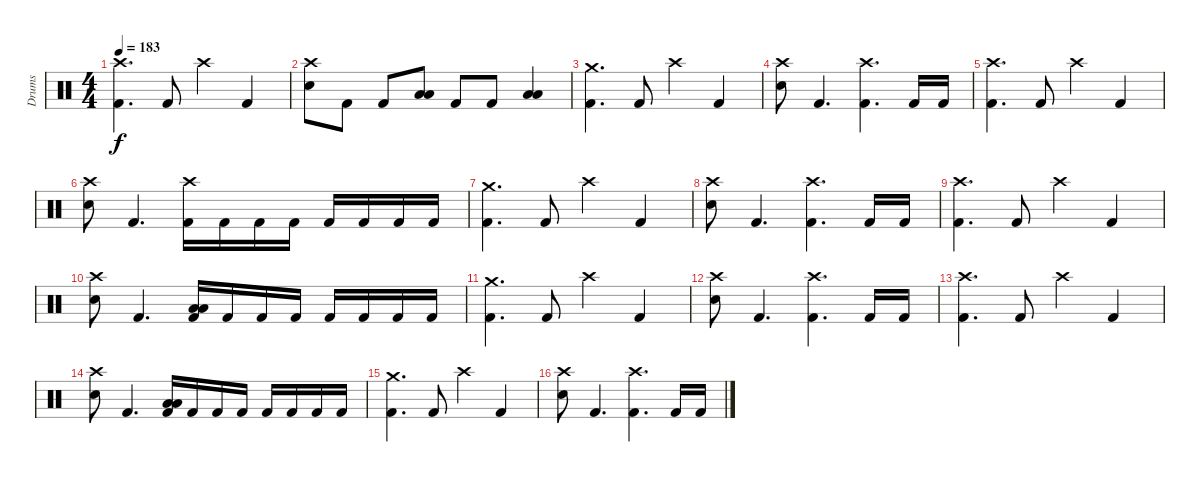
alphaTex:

\track ("Drums" "Drums") {instrument percussion}
\staff {score}
\articulation defaults
\ts (4 4)
\tempo 183
\clef neutral
\ks c
("Crash high (hit)" "Kick (hit) 2").4{d dy f} "Kick (hit) 2".8 "Crash high (hit)".4 "Kick (hit) 2".4 |
("Crash high (hit)" "Electric Snare (hit)").8 "Kick (hit) 2".8 "Kick (hit) 2".8 ("Low Tom (hit)" "Low Tom (hit)").8 "Kick (hit) 2".8 "Kick (hit) 2".8 ("Low Tom (hit)" "Low Floor Tom (hit)").4 |
("Crash medium (hit)" "Kick (hit) 2").4{d} "Kick (hit) 2".8 "Crash high (hit)".4 "Kick (hit) 2".4 |
("Crash high (hit)" "Electric Snare (hit)").8 "Kick (hit) 2".4{d} ("Crash high (hit)" "Kick (hit) 2").4{d} "Kick (hit) 2".16 "Kick (hit) 2".16 |
("Crash high (hit)" "Kick (hit) 2").4{d} "Kick (hit) 2".8 "Crash high (hit)".4 "Kick (hit) 2".4 |
("Crash high (hit)" "Electric Snare (hit)").8 "Kick (hit) 2".4{d} ("Crash high (hit)" "Kick (hit) 2").16 "Kick (hit) 2".16 "Kick (hit) 2".16 "Kick (hit) 2".16 "Kick (hit) 2".16 "Kick (hit) 2".16 "Kick (hit) 2".16 "Kick (hit) 2".16 |
("Crash medium (hit)" "Kick (hit) 2").4{d} "Kick (hit) 2".8 "Crash high (hit)".4 "Kick (hit) 2".4 |
("Crash high (hit)" "Electric Snare (hit)").8 "Kick (hit) 2".4{d} ("Crash high (hit)" "Kick (hit) 2").4{d} "Kick (hit) 2".16 "Kick (hit) 2".16 |
("Crash high (hit)" "Kick (hit) 2").4{d} "Kick (hit) 2".8 "Crash high (hit)".4 "Kick (hit) 2".4 |
("Crash high (hit)" "Electric Snare (hit)").8 "Kick (hit) 2".4{d} ("Low Tom (hit)" "Low Floor Tom (hit)" "Kick (hit) 2").16 "Kick (hit) 2".16 "Kick (hit) 2".16 "Kick (hit) 2".16 "Kick (hit) 2".16 "Kick (hit) 2".16 "Kick (hit) 2".16 "Kick (hit) 2".16 |
("Crash medium (hit)" "Kick (hit) 2").4{d} "Kick (hit) 2".8 "Crash high (hit)".4 "Kick (hit) 2".4 |
("Crash high (hit)" "Electric Snare (hit)").8 "Kick (hit) 2".4{d} ("Crash high (hit)" "Kick (hit) 2").4{d} "Kick (hit) 2".16 "Kick (hit) 2".16 |
("Crash high (hit)" "Kick (hit) 2").4{d} "Kick (hit) 2".8 "Crash high (hit)".4 "Kick (hit) 2".4 |
("Crash high (hit)" "Electric Snare (hit)").8 "Kick (hit) 2".4{d} ("Low Tom (hit)" "Low Floor Tom (hit)" "Kick (hit) 2").16 "Kick (hit) 2".16 "Kick (hit) 2".16 "Kick (hit) 2".16 "Kick (hit) 2".16 "Kick (hit) 2".16 "Kick (hit) 2".16 "Kick (hit) 2".16 |
("Crash medium (hit)" "Kick (hit) 2").4{d} "Kick (hit) 2".8 "Crash high (hit)".4 "Kick (hit) 2".4 |
("Crash high (hit)" "Electric Snare (hit)").8 "Kick (hit) 2".4{d} ("Crash high (hit)" "Kick (hit) 2").4{d} "Kick (hit) 2".16 "Kick (hit) 2".16
